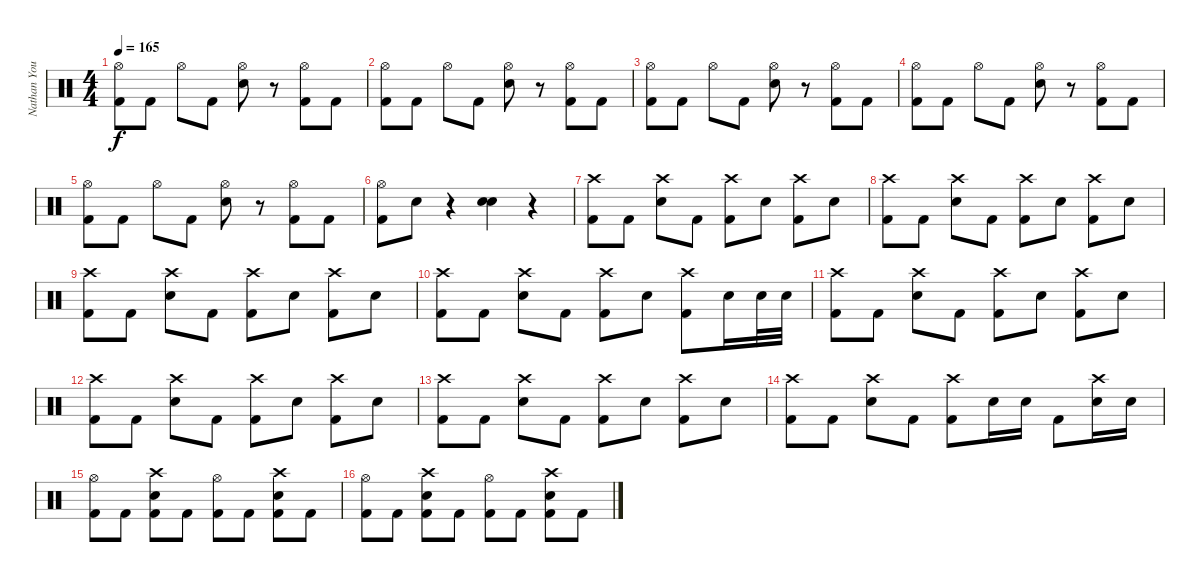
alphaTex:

\track ("Nathan Young" "Nathan You") {instrument percussion}
\staff {score}
\articulation defaults
\ts (4 4)
\tempo 165
\clef neutral
\ks c
("Hi-Hat (open)" "Kick (hit) 2").8{dy f} "Kick (hit) 2".8 "Hi-Hat (open)".8 "Kick (hit) 2".8 ("Hi-Hat (open)" "Snare (hit) 2").8 r.8 ("Hi-Hat (open)" "Kick (hit) 2").8 "Kick (hit) 2".8 |
("Hi-Hat (open)" "Kick (hit) 2").8 "Kick (hit) 2".8 "Hi-Hat (open)".8 "Kick (hit) 2".8 ("Hi-Hat (open)" "Snare (hit) 2").8 r.8 ("Hi-Hat (open)" "Kick (hit) 2").8 "Kick (hit) 2".8 |
("Hi-Hat (open)" "Kick (hit) 2").8 "Kick (hit) 2".8 "Hi-Hat (open)".8 "Kick (hit) 2".8 ("Hi-Hat (open)" "Snare (hit) 2").8 r.8 ("Hi-Hat (open)" "Kick (hit) 2").8 "Kick (hit) 2".8 |
("Hi-Hat (open)" "Kick (hit) 2").8 "Kick (hit) 2".8 "Hi-Hat (open)".8 "Kick (hit) 2".8 ("Hi-Hat (open)" "Snare (hit) 2").8 r.8 ("Hi-Hat (open)" "Kick (hit) 2").8 "Kick (hit) 2".8 |
("Hi-Hat (open)" "Kick (hit) 2").8 "Kick (hit) 2".8 "Hi-Hat (open)".8 "Kick (hit) 2".8 ("Hi-Hat (open)" "Snare (hit) 2").8 r.8 ("Hi-Hat (open)" "Kick (hit) 2").8 "Kick (hit) 2".8 |
("Hi-Hat (open)" "Kick (hit) 2").8 "Snare (hit) 2".8 r.4 ("Snare (hit) 2" "Electric Snare (hit)").4 r.4 |
("Crash high (hit)" "Kick (hit) 2").8 "Kick (hit) 2".8 ("Crash high (hit)" "Snare (hit) 2").8 "Kick (hit) 2".8 ("Crash high (hit)" "Kick (hit) 2").8 "Snare (hit) 2".8 ("Crash high (hit)" "Kick (hit) 2").8 "Snare (hit) 2".8 |
("Crash high (hit)" "Kick (hit) 2").8 "Kick (hit) 2".8 ("Crash high (hit)" "Snare (hit) 2").8 "Kick (hit) 2".8 ("Crash high (hit)" "Kick (hit) 2").8 "Snare (hit) 2".8 ("Crash high (hit)" "Kick (hit) 2").8 "Snare (hit) 2".8 |
("Crash high (hit)" "Kick (hit) 2").8 "Kick (hit) 2".8 ("Crash high (hit)" "Snare (hit) 2").8 "Kick (hit) 2".8 ("Crash high (hit)" "Kick (hit) 2").8 "Snare (hit) 2".8 ("Crash high (hit)" "Kick (hit) 2").8 "Snare (hit) 2".8 |
("Crash high (hit)" "Kick (hit) 2").8 "Kick (hit) 2".8 ("Crash high (hit)" "Snare (hit) 2").8 "Kick (hit) 2".8 ("Crash high (hit)" "Kick (hit) 2").8 "Snare (hit) 2".8 ("Crash high (hit)" "Kick (hit) 2").8 "Snare (hit) 2".16 "Snare (hit) 2".32 "Snare (hit) 2".32 |
("Crash high (hit)" "Kick (hit) 2").8 "Kick (hit) 2".8 ("Crash high (hit)" "Snare (hit) 2").8 "Kick (hit) 2".8 ("Crash high (hit)" "Kick (hit) 2").8 "Snare (hit) 2".8 ("Crash high (hit)" "Kick (hit) 2").8 "Snare (hit) 2".8 |
("Crash high (hit)" "Kick (hit) 2").8 "Kick (hit) 2".8 ("Crash high (hit)" "Snare (hit) 2").8 "Kick (hit) 2".8 ("Crash high (hit)" "Kick (hit) 2").8 "Snare (hit) 2".8 ("Crash high (hit)" "Kick (hit) 2").8 "Snare (hit) 2".8 |
("Crash high (hit)" "Kick (hit) 2").8 "Kick (hit) 2".8 ("Crash high (hit)" "Snare (hit) 2").8 "Kick (hit) 2".8 ("Crash high (hit)" "Kick (hit) 2").8 "Snare (hit) 2".8 ("Crash high (hit)" "Kick (hit) 2").8 "Snare (hit) 2".8 |
("Crash high (hit)" "Kick (hit) 2").8 "Kick (hit) 2".8 ("Crash high (hit)" "Snare (hit) 2").8 "Kick (hit) 2".8 ("Crash high (hit)" "Kick (hit) 2").8 "Snare (hit) 2".16 "Snare (hit) 2".16 "Kick (hit) 2".8 ("Crash high (hit)" "Snare (hit) 2").16 "Snare (hit) 2".16 |
("Hi-Hat (open)" "Kick (hit) 2").8 "Kick (hit) 2".8 ("Crash high (hit)" "Snare (hit) 2" "Kick (hit) 2").8 "Kick (hit) 2".8 ("Hi-Hat (open)" "Kick (hit) 2").8 "Kick (hit) 2".8 ("Crash high (hit)" "Snare (hit) 2" "Kick (hit) 2").8 "Kick (hit) 2".8 |
("Hi-Hat (open)" "Kick (hit) 2").8 "Kick (hit) 2".8 ("Crash high (hit)" "Snare (hit) 2" "Kick (hit) 2").8 "Kick (hit) 2".8 ("Hi-Hat (open)" "Kick (hit) 2").8 "Kick (hit) 2".8 ("Crash high (hit)" "Snare (hit) 2" "Kick (hit) 2").8 "Kick (hit) 2".8
